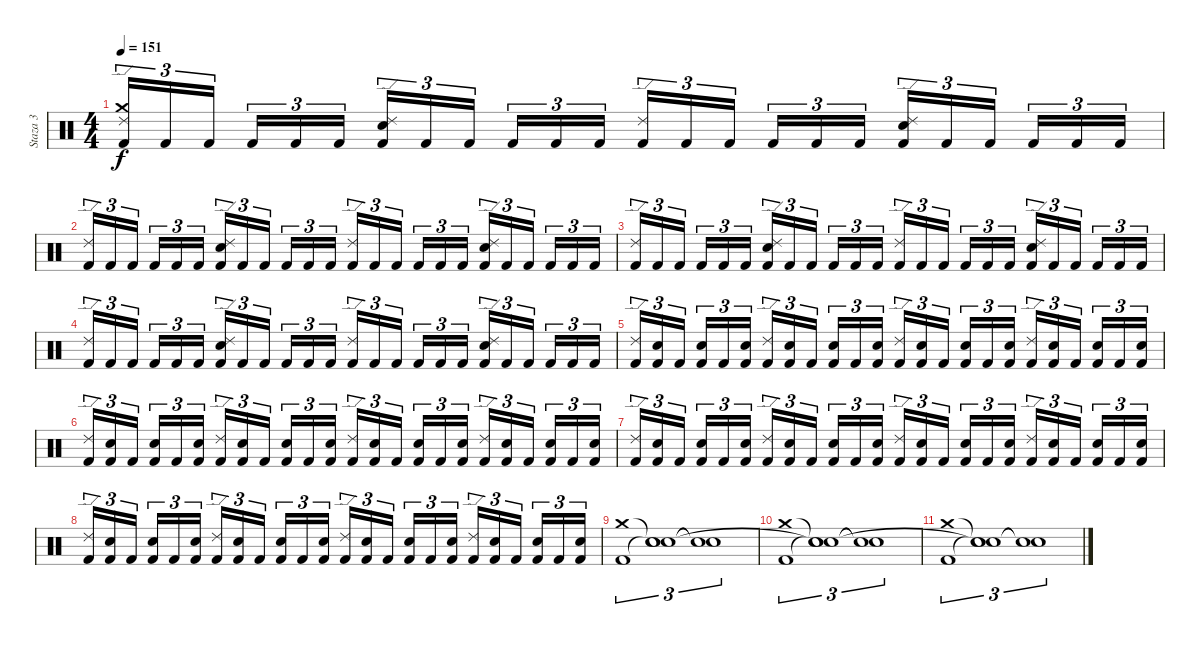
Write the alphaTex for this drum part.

\track ("Staza 3" "Staza 3") {instrument percussion}
\staff {score}
\articulation defaults
\ts (4 4)
\tempo 151
\clef neutral
\ks c
("Kick (hit) 2" "Crash medium (hit)" "Ride (edge) 2").16{tu (3 2) dy f} "Kick (hit) 2".16{tu (3 2)} "Kick (hit) 2".16{tu (3 2)} "Kick (hit) 2".16{tu (3 2)} "Kick (hit) 2".16{tu (3 2)} "Kick (hit) 2".16{tu (3 2)} ("Kick (hit) 2" "Electric Snare (hit)" "Ride (edge) 2").16{tu (3 2)} "Kick (hit) 2".16{tu (3 2)} "Kick (hit) 2".16{tu (3 2)} "Kick (hit) 2".16{tu (3 2)} "Kick (hit) 2".16{tu (3 2)} "Kick (hit) 2".16{tu (3 2)} ("Kick (hit) 2" "Ride (edge) 2").16{tu (3 2)} "Kick (hit) 2".16{tu (3 2)} "Kick (hit) 2".16{tu (3 2)} "Kick (hit) 2".16{tu (3 2)} "Kick (hit) 2".16{tu (3 2)} "Kick (hit) 2".16{tu (3 2)} ("Kick (hit) 2" "Electric Snare (hit)" "Ride (edge) 2").16{tu (3 2)} "Kick (hit) 2".16{tu (3 2)} "Kick (hit) 2".16{tu (3 2)} "Kick (hit) 2".16{tu (3 2)} "Kick (hit) 2".16{tu (3 2)} "Kick (hit) 2".16{tu (3 2)} |
("Kick (hit) 2" "Ride (edge) 2").16{tu (3 2)} "Kick (hit) 2".16{tu (3 2)} "Kick (hit) 2".16{tu (3 2)} "Kick (hit) 2".16{tu (3 2)} "Kick (hit) 2".16{tu (3 2)} "Kick (hit) 2".16{tu (3 2)} ("Kick (hit) 2" "Electric Snare (hit)" "Ride (edge) 2").16{tu (3 2)} "Kick (hit) 2".16{tu (3 2)} "Kick (hit) 2".16{tu (3 2)} "Kick (hit) 2".16{tu (3 2)} "Kick (hit) 2".16{tu (3 2)} "Kick (hit) 2".16{tu (3 2)} ("Kick (hit) 2" "Ride (edge) 2").16{tu (3 2)} "Kick (hit) 2".16{tu (3 2)} "Kick (hit) 2".16{tu (3 2)} "Kick (hit) 2".16{tu (3 2)} "Kick (hit) 2".16{tu (3 2)} "Kick (hit) 2".16{tu (3 2)} ("Kick (hit) 2" "Electric Snare (hit)" "Ride (edge) 2").16{tu (3 2)} "Kick (hit) 2".16{tu (3 2)} "Kick (hit) 2".16{tu (3 2)} "Kick (hit) 2".16{tu (3 2)} "Kick (hit) 2".16{tu (3 2)} "Kick (hit) 2".16{tu (3 2)} |
("Kick (hit) 2" "Ride (edge) 2").16{tu (3 2)} "Kick (hit) 2".16{tu (3 2)} "Kick (hit) 2".16{tu (3 2)} "Kick (hit) 2".16{tu (3 2)} "Kick (hit) 2".16{tu (3 2)} "Kick (hit) 2".16{tu (3 2)} ("Kick (hit) 2" "Electric Snare (hit)" "Ride (edge) 2").16{tu (3 2)} "Kick (hit) 2".16{tu (3 2)} "Kick (hit) 2".16{tu (3 2)} "Kick (hit) 2".16{tu (3 2)} "Kick (hit) 2".16{tu (3 2)} "Kick (hit) 2".16{tu (3 2)} ("Kick (hit) 2" "Ride (edge) 2").16{tu (3 2)} "Kick (hit) 2".16{tu (3 2)} "Kick (hit) 2".16{tu (3 2)} "Kick (hit) 2".16{tu (3 2)} "Kick (hit) 2".16{tu (3 2)} "Kick (hit) 2".16{tu (3 2)} ("Kick (hit) 2" "Electric Snare (hit)" "Ride (edge) 2").16{tu (3 2)} "Kick (hit) 2".16{tu (3 2)} "Kick (hit) 2".16{tu (3 2)} "Kick (hit) 2".16{tu (3 2)} "Kick (hit) 2".16{tu (3 2)} "Kick (hit) 2".16{tu (3 2)} |
("Kick (hit) 2" "Ride (edge) 2").16{tu (3 2)} "Kick (hit) 2".16{tu (3 2)} "Kick (hit) 2".16{tu (3 2)} "Kick (hit) 2".16{tu (3 2)} "Kick (hit) 2".16{tu (3 2)} "Kick (hit) 2".16{tu (3 2)} ("Kick (hit) 2" "Electric Snare (hit)" "Ride (edge) 2").16{tu (3 2)} "Kick (hit) 2".16{tu (3 2)} "Kick (hit) 2".16{tu (3 2)} "Kick (hit) 2".16{tu (3 2)} "Kick (hit) 2".16{tu (3 2)} "Kick (hit) 2".16{tu (3 2)} ("Kick (hit) 2" "Ride (edge) 2").16{tu (3 2)} "Kick (hit) 2".16{tu (3 2)} "Kick (hit) 2".16{tu (3 2)} "Kick (hit) 2".16{tu (3 2)} "Kick (hit) 2".16{tu (3 2)} "Kick (hit) 2".16{tu (3 2)} ("Kick (hit) 2" "Electric Snare (hit)" "Ride (edge) 2").16{tu (3 2)} "Kick (hit) 2".16{tu (3 2)} "Kick (hit) 2".16{tu (3 2)} "Kick (hit) 2".16{tu (3 2)} "Kick (hit) 2".16{tu (3 2)} "Kick (hit) 2".16{tu (3 2)} |
("Kick (hit) 2" "Ride (edge) 2").16{tu (3 2)} ("Kick (hit) 2" "Electric Snare (hit)").16{tu (3 2)} "Kick (hit) 2".16{tu (3 2)} ("Kick (hit) 2" "Electric Snare (hit)").16{tu (3 2)} "Kick (hit) 2".16{tu (3 2)} ("Kick (hit) 2" "Electric Snare (hit)").16{tu (3 2)} ("Kick (hit) 2" "Ride (edge) 2").16{tu (3 2)} ("Kick (hit) 2" "Electric Snare (hit)").16{tu (3 2)} "Kick (hit) 2".16{tu (3 2)} ("Kick (hit) 2" "Electric Snare (hit)").16{tu (3 2)} "Kick (hit) 2".16{tu (3 2)} ("Kick (hit) 2" "Electric Snare (hit)").16{tu (3 2)} ("Kick (hit) 2" "Ride (edge) 2").16{tu (3 2)} ("Kick (hit) 2" "Electric Snare (hit)").16{tu (3 2)} "Kick (hit) 2".16{tu (3 2)} ("Kick (hit) 2" "Electric Snare (hit)").16{tu (3 2)} "Kick (hit) 2".16{tu (3 2)} ("Kick (hit) 2" "Electric Snare (hit)").16{tu (3 2)} ("Kick (hit) 2" "Ride (edge) 2").16{tu (3 2)} ("Kick (hit) 2" "Electric Snare (hit)").16{tu (3 2)} "Kick (hit) 2".16{tu (3 2)} ("Kick (hit) 2" "Electric Snare (hit)").16{tu (3 2)} "Kick (hit) 2".16{tu (3 2)} ("Kick (hit) 2" "Electric Snare (hit)").16{tu (3 2)} |
("Kick (hit) 2" "Ride (edge) 2").16{tu (3 2)} ("Kick (hit) 2" "Electric Snare (hit)").16{tu (3 2)} "Kick (hit) 2".16{tu (3 2)} ("Kick (hit) 2" "Electric Snare (hit)").16{tu (3 2)} "Kick (hit) 2".16{tu (3 2)} ("Kick (hit) 2" "Electric Snare (hit)").16{tu (3 2)} ("Kick (hit) 2" "Ride (edge) 2").16{tu (3 2)} ("Kick (hit) 2" "Electric Snare (hit)").16{tu (3 2)} "Kick (hit) 2".16{tu (3 2)} ("Kick (hit) 2" "Electric Snare (hit)").16{tu (3 2)} "Kick (hit) 2".16{tu (3 2)} ("Kick (hit) 2" "Electric Snare (hit)").16{tu (3 2)} ("Kick (hit) 2" "Ride (edge) 2").16{tu (3 2)} ("Kick (hit) 2" "Electric Snare (hit)").16{tu (3 2)} "Kick (hit) 2".16{tu (3 2)} ("Kick (hit) 2" "Electric Snare (hit)").16{tu (3 2)} "Kick (hit) 2".16{tu (3 2)} ("Kick (hit) 2" "Electric Snare (hit)").16{tu (3 2)} ("Kick (hit) 2" "Ride (edge) 2").16{tu (3 2)} ("Kick (hit) 2" "Electric Snare (hit)").16{tu (3 2)} "Kick (hit) 2".16{tu (3 2)} ("Kick (hit) 2" "Electric Snare (hit)").16{tu (3 2)} "Kick (hit) 2".16{tu (3 2)} ("Kick (hit) 2" "Electric Snare (hit)").16{tu (3 2)} |
("Kick (hit) 2" "Ride (edge) 2").16{tu (3 2)} ("Kick (hit) 2" "Electric Snare (hit)").16{tu (3 2)} "Kick (hit) 2".16{tu (3 2)} ("Kick (hit) 2" "Electric Snare (hit)").16{tu (3 2)} "Kick (hit) 2".16{tu (3 2)} ("Kick (hit) 2" "Electric Snare (hit)").16{tu (3 2)} ("Kick (hit) 2" "Ride (edge) 2").16{tu (3 2)} ("Kick (hit) 2" "Electric Snare (hit)").16{tu (3 2)} "Kick (hit) 2".16{tu (3 2)} ("Kick (hit) 2" "Electric Snare (hit)").16{tu (3 2)} "Kick (hit) 2".16{tu (3 2)} ("Kick (hit) 2" "Electric Snare (hit)").16{tu (3 2)} ("Kick (hit) 2" "Ride (edge) 2").16{tu (3 2)} ("Kick (hit) 2" "Electric Snare (hit)").16{tu (3 2)} "Kick (hit) 2".16{tu (3 2)} ("Kick (hit) 2" "Electric Snare (hit)").16{tu (3 2)} "Kick (hit) 2".16{tu (3 2)} ("Kick (hit) 2" "Electric Snare (hit)").16{tu (3 2)} ("Kick (hit) 2" "Ride (edge) 2").16{tu (3 2)} ("Kick (hit) 2" "Electric Snare (hit)").16{tu (3 2)} "Kick (hit) 2".16{tu (3 2)} ("Kick (hit) 2" "Electric Snare (hit)").16{tu (3 2)} "Kick (hit) 2".16{tu (3 2)} ("Kick (hit) 2" "Electric Snare (hit)").16{tu (3 2)} |
("Kick (hit) 2" "Ride (edge) 2").16{tu (3 2)} ("Kick (hit) 2" "Electric Snare (hit)").16{tu (3 2)} "Kick (hit) 2".16{tu (3 2)} ("Kick (hit) 2" "Electric Snare (hit)").16{tu (3 2)} "Kick (hit) 2".16{tu (3 2)} ("Kick (hit) 2" "Electric Snare (hit)").16{tu (3 2)} ("Kick (hit) 2" "Ride (edge) 2").16{tu (3 2)} ("Kick (hit) 2" "Electric Snare (hit)").16{tu (3 2)} "Kick (hit) 2".16{tu (3 2)} ("Kick (hit) 2" "Electric Snare (hit)").16{tu (3 2)} "Kick (hit) 2".16{tu (3 2)} ("Kick (hit) 2" "Electric Snare (hit)").16{tu (3 2)} ("Kick (hit) 2" "Ride (edge) 2").16{tu (3 2)} ("Kick (hit) 2" "Electric Snare (hit)").16{tu (3 2)} "Kick (hit) 2".16{tu (3 2)} ("Kick (hit) 2" "Electric Snare (hit)").16{tu (3 2)} "Kick (hit) 2".16{tu (3 2)} ("Kick (hit) 2" "Electric Snare (hit)").16{tu (3 2)} ("Kick (hit) 2" "Ride (edge) 2").16{tu (3 2)} ("Kick (hit) 2" "Electric Snare (hit)").16{tu (3 2)} "Kick (hit) 2".16{tu (3 2)} ("Kick (hit) 2" "Electric Snare (hit)").16{tu (3 2)} "Kick (hit) 2".16{tu (3 2)} ("Kick (hit) 2" "Electric Snare (hit)").16{tu (3 2)} |
("Kick (hit) 2" "Crash medium (hit)").1{tu (3 2)} ("Snare (hit)"{t} "Snare (hit)"{t} "Snare (hit)").1{tu (3 2)} ("Snare (hit)"{t} "Snare (hit)"{t}).1{tu (3 2)} |
("Kick (hit) 2" "Crash medium (hit)").1{tu (3 2)} ("Snare (hit)"{t} "Snare (hit)"{t} "Snare (hit)"{t}).1{tu (3 2)} ("Snare (hit)"{t} "Snare (hit)"{t}).1{tu (3 2)} |
("Kick (hit) 2" "Crash medium (hit)").1{tu (3 2)} ("Snare (hit)"{t} "Snare (hit)"{t} "Snare (hit)"{t}).1{tu (3 2)} ("Snare (hit)"{t} "Snare (hit)"{t}).1{tu (3 2)}
